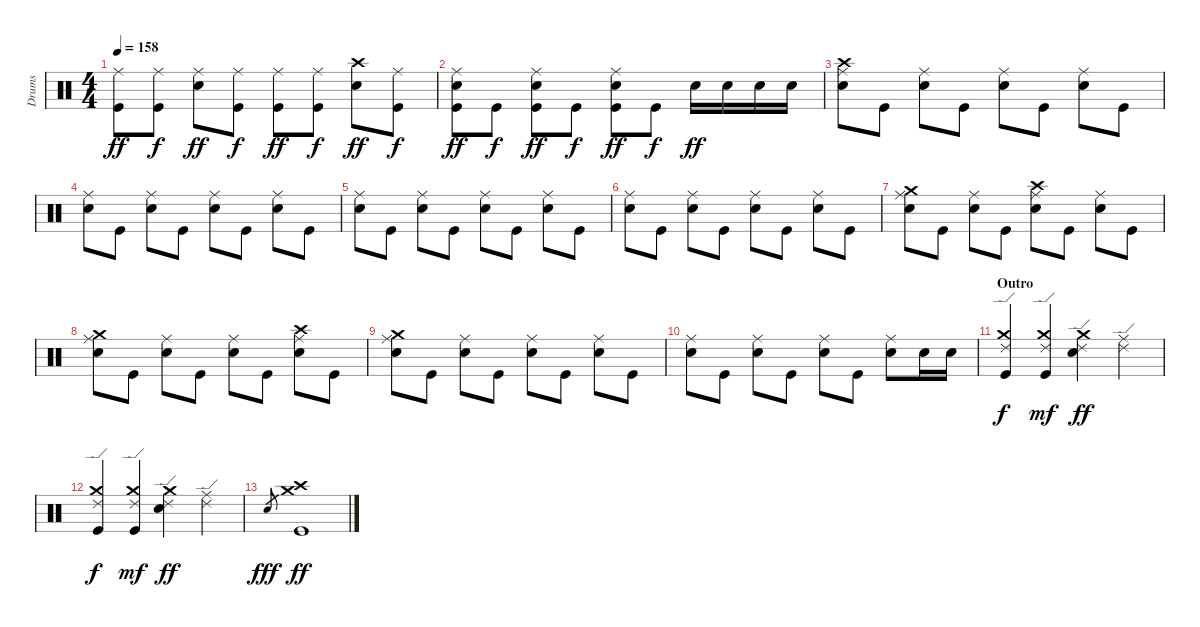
\track ("Drums" "Drums") {instrument percussion}
\staff {score}
\articulation defaults
\ts (4 4)
\tempo 158
\clef neutral
\ks c
("Ride (middle)" "Kick (hit)").8{dy ff} ("Ride (middle)" "Kick (hit)").8{dy f} ("Ride (middle)" "Electric Snare (hit)").8{dy ff} ("Ride (middle)" "Kick (hit)").8{dy f} ("Ride (middle)" "Kick (hit)").8{dy ff} ("Ride (middle)" "Kick (hit)").8{dy f} ("Crash high (hit)" "Electric Snare (hit)").8{dy ff} ("Ride (middle)" "Kick (hit)").8{dy f} |
("Ride (middle)" "Electric Snare (hit)" "Kick (hit)").8{dy ff} "Kick (hit)".8{dy f} ("Ride (middle)" "Electric Snare (hit)" "Kick (hit)").8{dy ff} "Kick (hit)".8{dy f} ("Ride (middle)" "Electric Snare (hit)" "Kick (hit)").8{dy ff} "Kick (hit)".8{dy f} "Electric Snare (hit)".16{dy ff} "Electric Snare (hit)".16 "Electric Snare (hit)".16 "Electric Snare (hit)".16 |
("Ride (middle)" "Crash high (hit)" "Electric Snare (hit)").8 "Kick (hit)".8 ("Ride (middle)" "Electric Snare (hit)").8 "Kick (hit)".8 ("Ride (middle)" "Electric Snare (hit)").8 "Kick (hit)".8 ("Ride (middle)" "Electric Snare (hit)").8 "Kick (hit)".8 |
("Ride (middle)" "Electric Snare (hit)").8 "Kick (hit)".8 ("Ride (middle)" "Electric Snare (hit)").8 "Kick (hit)".8 ("Ride (middle)" "Electric Snare (hit)").8 "Kick (hit)".8 ("Ride (middle)" "Electric Snare (hit)").8 "Kick (hit)".8 |
("Ride (middle)" "Electric Snare (hit)").8 "Kick (hit)".8 ("Ride (middle)" "Electric Snare (hit)").8 "Kick (hit)".8 ("Ride (middle)" "Electric Snare (hit)").8 "Kick (hit)".8 ("Ride (middle)" "Electric Snare (hit)").8 "Kick (hit)".8 |
("Ride (middle)" "Electric Snare (hit)").8 "Kick (hit)".8 ("Ride (middle)" "Electric Snare (hit)").8 "Kick (hit)".8 ("Ride (middle)" "Electric Snare (hit)").8 "Kick (hit)".8 ("Ride (middle)" "Electric Snare (hit)").8 "Kick (hit)".8 |
("Ride (middle)" "Crash medium (hit)" "Electric Snare (hit)").8 "Kick (hit)".8 ("Ride (middle)" "Electric Snare (hit)").8 "Kick (hit)".8 ("Ride (middle)" "Crash high (hit)" "Electric Snare (hit)").8 "Kick (hit)".8 ("Ride (middle)" "Electric Snare (hit)").8 "Kick (hit)".8 |
("Ride (middle)" "Crash medium (hit)" "Electric Snare (hit)").8 "Kick (hit)".8 ("Ride (middle)" "Electric Snare (hit)").8 "Kick (hit)".8 ("Ride (middle)" "Electric Snare (hit)").8 "Kick (hit)".8 ("Ride (middle)" "Crash high (hit)" "Electric Snare (hit)").8 "Kick (hit)".8 |
("Ride (middle)" "Crash medium (hit)" "Electric Snare (hit)").8 "Kick (hit)".8 ("Ride (middle)" "Electric Snare (hit)").8 "Kick (hit)".8 ("Ride (middle)" "Electric Snare (hit)").8 "Kick (hit)".8 ("Ride (middle)" "Electric Snare (hit)").8 "Kick (hit)".8 |
("Ride (middle)" "Electric Snare (hit)").8 "Kick (hit)".8 ("Ride (middle)" "Electric Snare (hit)").8 "Kick (hit)".8 ("Ride (middle)" "Electric Snare (hit)").8 "Kick (hit)".8 ("Ride (middle)" "Electric Snare (hit)").8 "Electric Snare (hit)".16 "Electric Snare (hit)".16 |
\section ("" "Outro")
("Crash medium (hit)" "Ride (edge) 2" "Kick (hit)").4{dy f} ("Crash medium (hit)" "Ride (edge) 2" "Kick (hit)").4{dy mf} ("Crash medium (hit)" "Ride (edge) 2" "Electric Snare (hit)").4{dy ff} ("Ride (middle)" "Ride (edge) 2").4 |
("Crash medium (hit)" "Ride (edge) 2" "Kick (hit)").4{dy f} ("Crash medium (hit)" "Ride (edge) 2" "Kick (hit)").4{dy mf} ("Crash medium (hit)" "Ride (edge) 2" "Electric Snare (hit)").4{dy ff} ("Ride (middle)" "Ride (edge) 2").4 |
"Electric Snare (hit)".8{gr dy fff} ("Crash medium (hit)" "Crash high (hit)" "Kick (hit)").1{dy ff}
